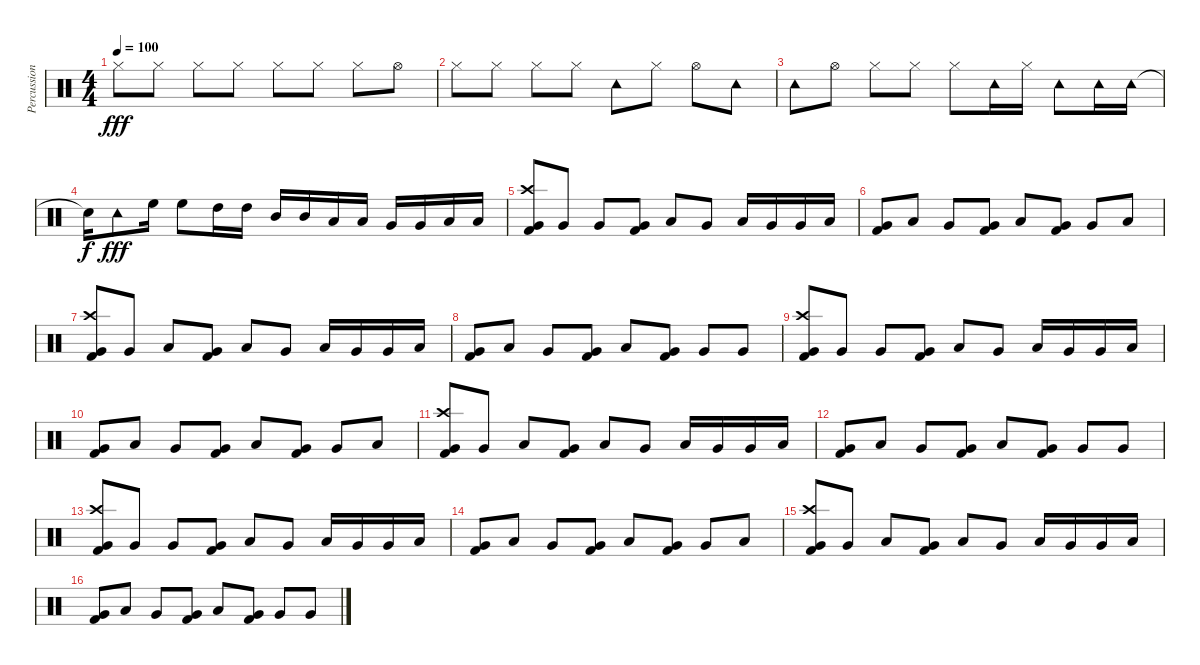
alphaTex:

\track ("Percussion" "Percussion") {instrument percussion}
\staff {score}
\articulation defaults
\ts (4 4)
\tempo 100
\clef neutral
\ks c "Hi-Hat (closed)".8{dy fff} "Hi-Hat (closed)".8 "Hi-Hat (closed)".8 "Hi-Hat (closed)".8 "Hi-Hat (closed)".8 "Hi-Hat (closed)".8 "Hi-Hat (closed)".8 "Hi-Hat (open)".8
|
"Hi-Hat (closed)".8 "Hi-Hat (closed)".8 "Hi-Hat (closed)".8 "Hi-Hat (closed)".8 "Tambourine (hit)".8 "Hi-Hat (closed)".8 "Hi-Hat (open)".8 "Tambourine (hit)".8 |
"Tambourine (hit)".8 "Hi-Hat (open)".8 "Hi-Hat (closed)".8 "Hi-Hat (closed)".8 "Hi-Hat (closed)".8 "Tambourine (hit)".16 "Hi-Hat (closed)".16 "Tambourine (hit)".8 "Tambourine (hit)".16 "Tambourine (hit)".16 |
"Snare (hit)"{t}.16{dy f} "Tambourine (hit)".8{dy fff} "High Floor Tom (hit)".16 "High Floor Tom (hit)".8 "High Tom (hit)".16 "High Tom (hit)".16 "Mid Tom (hit)".16 "Mid Tom (hit)".16 "Low Tom (hit)".16 "Low Tom (hit)".16 "Very Low Tom (hit)".16 "Very Low Tom (hit)".16 "Low Floor Tom (hit)".16 "Low Floor Tom (hit)".16 |
("Crash high (hit)" "Very Low Tom (hit)" "Kick (hit) 2").8 "Very Low Tom (hit)".8 "Very Low Tom (hit)".8 ("Very Low Tom (hit)" "Kick (hit) 2").8 "Low Floor Tom (hit)".8 "Very Low Tom (hit)".8 "Low Floor Tom (hit)".16 "Very Low Tom (hit)".16 "Very Low Tom (hit)".16 "Low Floor Tom (hit)".16 |
("Very Low Tom (hit)" "Kick (hit) 2").8 "Low Floor Tom (hit)".8 "Very Low Tom (hit)".8 ("Very Low Tom (hit)" "Kick (hit) 2").8 "Low Floor Tom (hit)".8 ("Very Low Tom (hit)" "Kick (hit) 2").8 "Very Low Tom (hit)".8 "Low Floor Tom (hit)".8 |
("Crash high (hit)" "Very Low Tom (hit)" "Kick (hit) 2").8 "Very Low Tom (hit)".8 "Low Floor Tom (hit)".8 ("Very Low Tom (hit)" "Kick (hit) 2").8 "Low Floor Tom (hit)".8 "Very Low Tom (hit)".8 "Low Floor Tom (hit)".16 "Very Low Tom (hit)".16 "Very Low Tom (hit)".16 "Low Floor Tom (hit)".16 |
("Very Low Tom (hit)" "Kick (hit) 2").8 "Low Floor Tom (hit)".8 "Very Low Tom (hit)".8 ("Very Low Tom (hit)" "Kick (hit) 2").8 "Low Floor Tom (hit)".8 ("Very Low Tom (hit)" "Kick (hit) 2").8 "Very Low Tom (hit)".8 "Very Low Tom (hit)".8 |
("Crash high (hit)" "Very Low Tom (hit)" "Kick (hit) 2").8 "Very Low Tom (hit)".8 "Very Low Tom (hit)".8 ("Very Low Tom (hit)" "Kick (hit) 2").8 "Low Floor Tom (hit)".8 "Very Low Tom (hit)".8 "Low Floor Tom (hit)".16 "Very Low Tom (hit)".16 "Very Low Tom (hit)".16 "Low Floor Tom (hit)".16 |
("Very Low Tom (hit)" "Kick (hit) 2").8 "Low Floor Tom (hit)".8 "Very Low Tom (hit)".8 ("Very Low Tom (hit)" "Kick (hit) 2").8 "Low Floor Tom (hit)".8 ("Very Low Tom (hit)" "Kick (hit) 2").8 "Very Low Tom (hit)".8 "Low Floor Tom (hit)".8 |
("Crash high (hit)" "Very Low Tom (hit)" "Kick (hit) 2").8 "Very Low Tom (hit)".8 "Low Floor Tom (hit)".8 ("Very Low Tom (hit)" "Kick (hit) 2").8 "Low Floor Tom (hit)".8 "Very Low Tom (hit)".8 "Low Floor Tom (hit)".16 "Very Low Tom (hit)".16 "Very Low Tom (hit)".16 "Low Floor Tom (hit)".16 |
("Very Low Tom (hit)" "Kick (hit) 2").8 "Low Floor Tom (hit)".8 "Very Low Tom (hit)".8 ("Very Low Tom (hit)" "Kick (hit) 2").8 "Low Floor Tom (hit)".8 ("Very Low Tom (hit)" "Kick (hit) 2").8 "Very Low Tom (hit)".8 "Very Low Tom (hit)".8 |
("Crash high (hit)" "Very Low Tom (hit)" "Kick (hit) 2").8 "Very Low Tom (hit)".8 "Very Low Tom (hit)".8 ("Very Low Tom (hit)" "Kick (hit) 2").8 "Low Floor Tom (hit)".8 "Very Low Tom (hit)".8 "Low Floor Tom (hit)".16 "Very Low Tom (hit)".16 "Very Low Tom (hit)".16 "Low Floor Tom (hit)".16 |
("Very Low Tom (hit)" "Kick (hit) 2").8 "Low Floor Tom (hit)".8 "Very Low Tom (hit)".8 ("Very Low Tom (hit)" "Kick (hit) 2").8 "Low Floor Tom (hit)".8 ("Very Low Tom (hit)" "Kick (hit) 2").8 "Very Low Tom (hit)".8 "Low Floor Tom (hit)".8 |
("Crash high (hit)" "Very Low Tom (hit)" "Kick (hit) 2").8 "Very Low Tom (hit)".8 "Low Floor Tom (hit)".8 ("Very Low Tom (hit)" "Kick (hit) 2").8 "Low Floor Tom (hit)".8 "Very Low Tom (hit)".8 "Low Floor Tom (hit)".16 "Very Low Tom (hit)".16 "Very Low Tom (hit)".16 "Low Floor Tom (hit)".16 |
("Very Low Tom (hit)" "Kick (hit) 2").8 "Low Floor Tom (hit)".8 "Very Low Tom (hit)".8 ("Very Low Tom (hit)" "Kick (hit) 2").8 "Low Floor Tom (hit)".8 ("Very Low Tom (hit)" "Kick (hit) 2").8 "Very Low Tom (hit)".8 "Very Low Tom (hit)".8
